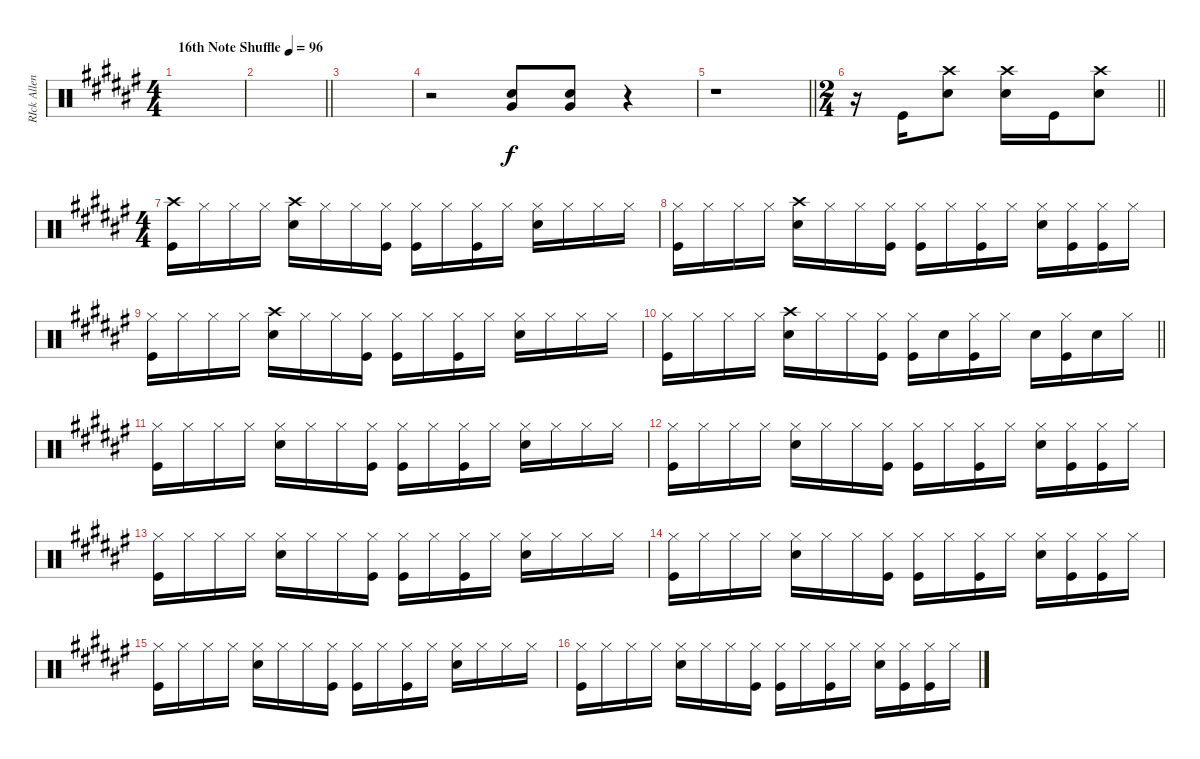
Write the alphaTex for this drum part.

\track ("RIck Allen" "RIck Allen") {instrument percussion}
\staff {score}
\articulation defaults
\ts (4 4)
\tempo (96 "16th Note Shuffle")
\clef neutral
\ks f#
|
\barLineRight lightlight
|
|
r.2 ("Snare (hit) 2" "Very Low Tom (hit)").8 ("Snare (hit) 2" "Very Low Tom (hit)").8 r.4 |
\barLineRight lightlight
r.1 |
\ts (2 4)
\barLineRight lightlight
r.16 "Kick (hit)".16 ("Crash high (hit)" "Snare (hit) 2").8 ("Crash high (hit)" "Snare (hit) 2").16 "Kick (hit)".16 ("Crash high (hit)" "Snare (hit) 2").8 |
\ts (4 4)
("Crash high (hit)" "Kick (hit)").16 "Hi-Hat (closed)".16 "Hi-Hat (closed)".16 "Hi-Hat (closed)".16 ("Crash high (hit)" "Snare (hit) 2").16 "Hi-Hat (closed)".16 "Hi-Hat (closed)".16 ("Hi-Hat (closed)" "Kick (hit)").16 ("Hi-Hat (closed)" "Kick (hit)").16 "Hi-Hat (closed)".16 ("Hi-Hat (closed)" "Kick (hit)").16 "Hi-Hat (closed)".16 ("Hi-Hat (closed)" "Snare (hit) 2").16 "Hi-Hat (closed)".16 "Hi-Hat (closed)".16 "Hi-Hat (closed)".16 |
("Hi-Hat (closed)" "Kick (hit)").16 "Hi-Hat (closed)".16 "Hi-Hat (closed)".16 "Hi-Hat (closed)".16 ("Crash high (hit)" "Snare (hit) 2").16 "Hi-Hat (closed)".16 "Hi-Hat (closed)".16 ("Hi-Hat (closed)" "Kick (hit)").16 ("Hi-Hat (closed)" "Kick (hit)").16 "Hi-Hat (closed)".16 ("Hi-Hat (closed)" "Kick (hit)").16 "Hi-Hat (closed)".16 ("Hi-Hat (closed)" "Snare (hit) 2").16 ("Hi-Hat (closed)" "Kick (hit)").16 ("Hi-Hat (closed)" "Kick (hit)").16 "Hi-Hat (closed)".16 |
("Hi-Hat (closed)" "Kick (hit)").16 "Hi-Hat (closed)".16 "Hi-Hat (closed)".16 "Hi-Hat (closed)".16 ("Crash high (hit)" "Snare (hit) 2").16 "Hi-Hat (closed)".16 "Hi-Hat (closed)".16 ("Hi-Hat (closed)" "Kick (hit)").16 ("Hi-Hat (closed)" "Kick (hit)").16 "Hi-Hat (closed)".16 ("Hi-Hat (closed)" "Kick (hit)").16 "Hi-Hat (closed)".16 ("Hi-Hat (closed)" "Snare (hit) 2").16 "Hi-Hat (closed)".16 "Hi-Hat (closed)".16 "Hi-Hat (closed)".16 |
\barLineRight lightlight
("Hi-Hat (closed)" "Kick (hit)").16 "Hi-Hat (closed)".16 "Hi-Hat (closed)".16 "Hi-Hat (closed)".16 ("Crash high (hit)" "Snare (hit) 2").16 "Hi-Hat (closed)".16 "Hi-Hat (closed)".16 ("Hi-Hat (closed)" "Kick (hit)").16 ("Hi-Hat (closed)" "Kick (hit)").16 "Snare (hit) 2".16 ("Hi-Hat (closed)" "Kick (hit)").16 "Hi-Hat (closed)".16 "Snare (hit) 2".16 ("Hi-Hat (closed)" "Kick (hit)").16 "Snare (hit) 2".16 "Hi-Hat (closed)".16 |
("Hi-Hat (closed)" "Kick (hit)").16 "Hi-Hat (closed)".16 "Hi-Hat (closed)".16 "Hi-Hat (closed)".16 ("Hi-Hat (closed)" "Snare (hit) 2").16 "Hi-Hat (closed)".16 "Hi-Hat (closed)".16 ("Hi-Hat (closed)" "Kick (hit)").16 ("Hi-Hat (closed)" "Kick (hit)").16 "Hi-Hat (closed)".16 ("Hi-Hat (closed)" "Kick (hit)").16 "Hi-Hat (closed)".16 ("Hi-Hat (closed)" "Snare (hit) 2").16 "Hi-Hat (closed)".16 "Hi-Hat (closed)".16 "Hi-Hat (closed)".16 |
("Hi-Hat (closed)" "Kick (hit)").16 "Hi-Hat (closed)".16 "Hi-Hat (closed)".16 "Hi-Hat (closed)".16 ("Hi-Hat (closed)" "Snare (hit) 2").16 "Hi-Hat (closed)".16 "Hi-Hat (closed)".16 ("Hi-Hat (closed)" "Kick (hit)").16 ("Hi-Hat (closed)" "Kick (hit)").16 "Hi-Hat (closed)".16 ("Hi-Hat (closed)" "Kick (hit)").16 "Hi-Hat (closed)".16 ("Hi-Hat (closed)" "Snare (hit) 2").16 ("Hi-Hat (closed)" "Kick (hit)").16 ("Hi-Hat (closed)" "Kick (hit)").16 "Hi-Hat (closed)".16 |
("Hi-Hat (closed)" "Kick (hit)").16 "Hi-Hat (closed)".16 "Hi-Hat (closed)".16 "Hi-Hat (closed)".16 ("Hi-Hat (closed)" "Snare (hit) 2").16 "Hi-Hat (closed)".16 "Hi-Hat (closed)".16 ("Hi-Hat (closed)" "Kick (hit)").16 ("Hi-Hat (closed)" "Kick (hit)").16 "Hi-Hat (closed)".16 ("Hi-Hat (closed)" "Kick (hit)").16 "Hi-Hat (closed)".16 ("Hi-Hat (closed)" "Snare (hit) 2").16 "Hi-Hat (closed)".16 "Hi-Hat (closed)".16 "Hi-Hat (closed)".16 |
("Hi-Hat (closed)" "Kick (hit)").16 "Hi-Hat (closed)".16 "Hi-Hat (closed)".16 "Hi-Hat (closed)".16 ("Hi-Hat (closed)" "Snare (hit) 2").16 "Hi-Hat (closed)".16 "Hi-Hat (closed)".16 ("Hi-Hat (closed)" "Kick (hit)").16 ("Hi-Hat (closed)" "Kick (hit)").16 "Hi-Hat (closed)".16 ("Hi-Hat (closed)" "Kick (hit)").16 "Hi-Hat (closed)".16 ("Hi-Hat (closed)" "Snare (hit) 2").16 ("Hi-Hat (closed)" "Kick (hit)").16 ("Hi-Hat (closed)" "Kick (hit)").16 "Hi-Hat (closed)".16 |
("Hi-Hat (closed)" "Kick (hit)").16 "Hi-Hat (closed)".16 "Hi-Hat (closed)".16 "Hi-Hat (closed)".16 ("Hi-Hat (closed)" "Snare (hit) 2").16 "Hi-Hat (closed)".16 "Hi-Hat (closed)".16 ("Hi-Hat (closed)" "Kick (hit)").16 ("Hi-Hat (closed)" "Kick (hit)").16 "Hi-Hat (closed)".16 ("Hi-Hat (closed)" "Kick (hit)").16 "Hi-Hat (closed)".16 ("Hi-Hat (closed)" "Snare (hit) 2").16 "Hi-Hat (closed)".16 "Hi-Hat (closed)".16 "Hi-Hat (closed)".16 |
("Hi-Hat (closed)" "Kick (hit)").16 "Hi-Hat (closed)".16 "Hi-Hat (closed)".16 "Hi-Hat (closed)".16 ("Hi-Hat (closed)" "Snare (hit) 2").16 "Hi-Hat (closed)".16 "Hi-Hat (closed)".16 ("Hi-Hat (closed)" "Kick (hit)").16 ("Hi-Hat (closed)" "Kick (hit)").16 "Hi-Hat (closed)".16 ("Hi-Hat (closed)" "Kick (hit)").16 "Hi-Hat (closed)".16 ("Hi-Hat (closed)" "Snare (hit) 2").16 ("Hi-Hat (closed)" "Kick (hit)").16 ("Hi-Hat (closed)" "Kick (hit)").16 "Hi-Hat (closed)".16
